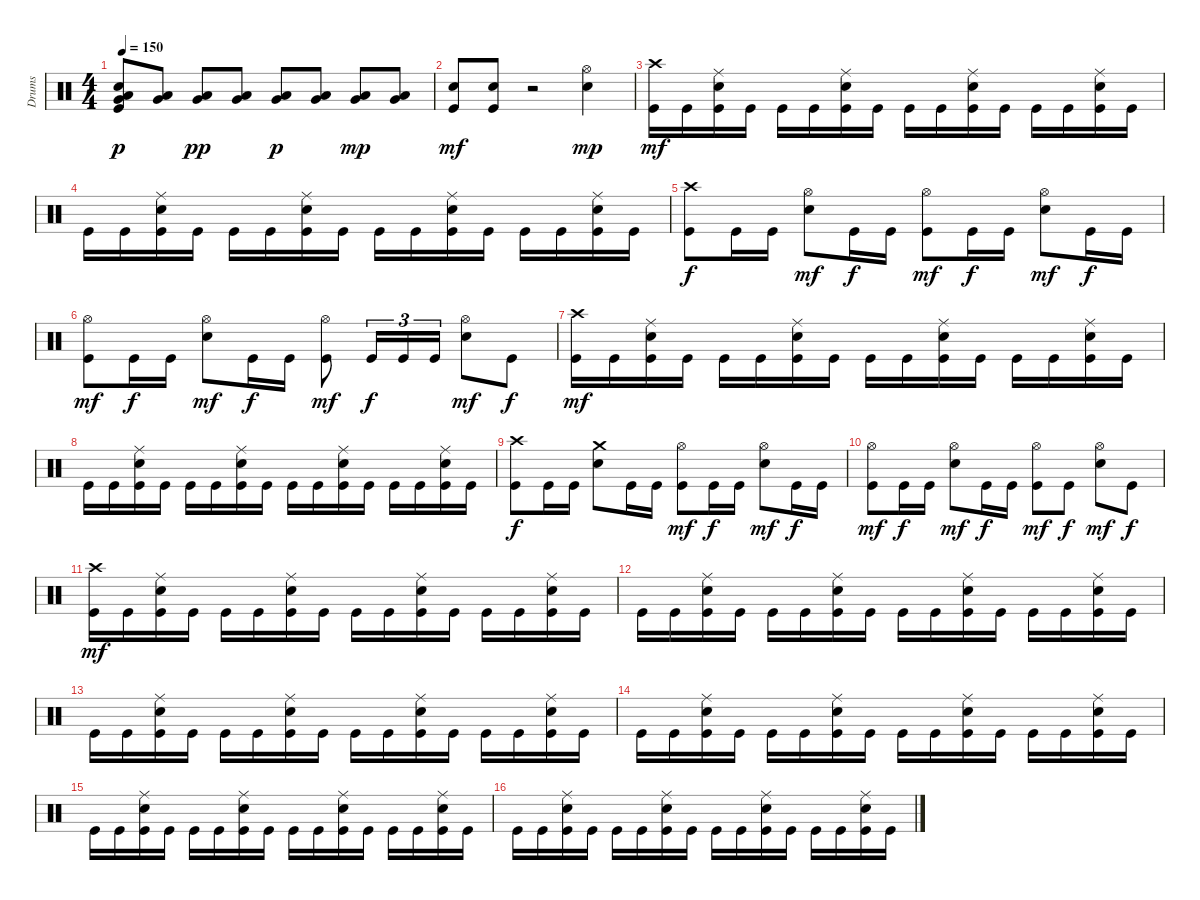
\track ("Drums" "Drums") {instrument percussion}
\staff {score}
\articulation defaults
\ts (4 4)
\tempo 150
\clef neutral
\ks c
("Kick (hit)" "Electric Snare (hit)" "Very Low Tom (hit)" "Low Tom (hit)").8{dy p} ("Very Low Tom (hit)" "Low Tom (hit)").8 ("Very Low Tom (hit)" "Low Tom (hit)").8{dy pp} ("Very Low Tom (hit)" "Low Tom (hit)").8 ("Very Low Tom (hit)" "Low Tom (hit)").8{dy p} ("Very Low Tom (hit)" "Low Tom (hit)").8 ("Very Low Tom (hit)" "Low Tom (hit)").8{dy mp} ("Very Low Tom (hit)" "Low Tom (hit)").8 |
("Kick (hit)" "Electric Snare (hit)").8{dy mf} ("Kick (hit)" "Electric Snare (hit)").8 r.2 ("Electric Snare (hit)" "Hi-Hat (open)").4{dy mp} |
("Kick (hit)" "Crash high (hit)").16{dy mf} "Kick (hit)".16 ("Kick (hit)" "Electric Snare (hit)" "Ride (middle)").16 "Kick (hit)".16 "Kick (hit)".16 "Kick (hit)".16 ("Kick (hit)" "Electric Snare (hit)" "Ride (middle)").16 "Kick (hit)".16 "Kick (hit)".16 "Kick (hit)".16 ("Kick (hit)" "Electric Snare (hit)" "Ride (middle)").16 "Kick (hit)".16 "Kick (hit)".16 "Kick (hit)".16 ("Kick (hit)" "Electric Snare (hit)" "Ride (middle)").16 "Kick (hit)".16 |
"Kick (hit)".16 "Kick (hit)".16 ("Kick (hit)" "Electric Snare (hit)" "Ride (middle)").16 "Kick (hit)".16 "Kick (hit)".16 "Kick (hit)".16 ("Kick (hit)" "Electric Snare (hit)" "Ride (middle)").16 "Kick (hit)".16 "Kick (hit)".16 "Kick (hit)".16 ("Kick (hit)" "Electric Snare (hit)" "Ride (middle)").16 "Kick (hit)".16 "Kick (hit)".16 "Kick (hit)".16 ("Kick (hit)" "Electric Snare (hit)" "Ride (middle)").16 "Kick (hit)".16 |
("Kick (hit)" "Crash high (hit)").8{dy f} "Kick (hit)".16 "Kick (hit)".16 ("Electric Snare (hit)" "Hi-Hat (open)").8{dy mf} "Kick (hit)".16{dy f} "Kick (hit)".16 ("Kick (hit)" "Hi-Hat (open)").8{dy mf} "Kick (hit)".16{dy f} "Kick (hit)".16 ("Electric Snare (hit)" "Hi-Hat (open)").8{dy mf} "Kick (hit)".16{dy f} "Kick (hit)".16 |
("Kick (hit)" "Hi-Hat (open)").8{dy mf} "Kick (hit)".16{dy f} "Kick (hit)".16 ("Electric Snare (hit)" "Hi-Hat (open)").8{dy mf} "Kick (hit)".16{dy f} "Kick (hit)".16 ("Kick (hit)" "Hi-Hat (open)").8{dy mf} "Kick (hit)".16{tu (3 2) dy f} "Kick (hit)".16{tu (3 2)} "Kick (hit)".16{tu (3 2)} ("Electric Snare (hit)" "Hi-Hat (open)").8{dy mf} "Kick (hit)".8{dy f} |
("Kick (hit)" "Crash high (hit)").16{dy mf} "Kick (hit)".16 ("Kick (hit)" "Electric Snare (hit)" "Ride (middle)").16 "Kick (hit)".16 "Kick (hit)".16 "Kick (hit)".16 ("Kick (hit)" "Electric Snare (hit)" "Ride (middle)").16 "Kick (hit)".16 "Kick (hit)".16 "Kick (hit)".16 ("Kick (hit)" "Electric Snare (hit)" "Ride (middle)").16 "Kick (hit)".16 "Kick (hit)".16 "Kick (hit)".16 ("Kick (hit)" "Electric Snare (hit)" "Ride (middle)").16 "Kick (hit)".16 |
"Kick (hit)".16 "Kick (hit)".16 ("Kick (hit)" "Electric Snare (hit)" "Ride (middle)").16 "Kick (hit)".16 "Kick (hit)".16 "Kick (hit)".16 ("Kick (hit)" "Electric Snare (hit)" "Ride (middle)").16 "Kick (hit)".16 "Kick (hit)".16 "Kick (hit)".16 ("Kick (hit)" "Electric Snare (hit)" "Ride (middle)").16 "Kick (hit)".16 "Kick (hit)".16 "Kick (hit)".16 ("Kick (hit)" "Electric Snare (hit)" "Ride (middle)").16 "Kick (hit)".16 |
("Kick (hit)" "Crash high (hit)").8{dy f} "Kick (hit)".16 "Kick (hit)".16 ("Electric Snare (hit)" "Crash medium (hit)").8 "Kick (hit)".16 "Kick (hit)".16 ("Kick (hit)" "Hi-Hat (open)").8{dy mf} "Kick (hit)".16{dy f} "Kick (hit)".16 ("Electric Snare (hit)" "Hi-Hat (open)").8{dy mf} "Kick (hit)".16{dy f} "Kick (hit)".16 |
("Kick (hit)" "Hi-Hat (open)").8{dy mf} "Kick (hit)".16{dy f} "Kick (hit)".16 ("Electric Snare (hit)" "Hi-Hat (open)").8{dy mf} "Kick (hit)".16{dy f} "Kick (hit)".16 ("Kick (hit)" "Hi-Hat (open)").8{dy mf} "Kick (hit)".8{dy f} ("Electric Snare (hit)" "Hi-Hat (open)").8{dy mf} "Kick (hit)".8{dy f} |
("Kick (hit)" "Crash high (hit)").16{dy mf} "Kick (hit)".16 ("Kick (hit)" "Electric Snare (hit)" "Ride (middle)").16 "Kick (hit)".16 "Kick (hit)".16 "Kick (hit)".16 ("Kick (hit)" "Electric Snare (hit)" "Ride (middle)").16 "Kick (hit)".16 "Kick (hit)".16 "Kick (hit)".16 ("Kick (hit)" "Electric Snare (hit)" "Ride (middle)").16 "Kick (hit)".16 "Kick (hit)".16 "Kick (hit)".16 ("Kick (hit)" "Electric Snare (hit)" "Ride (middle)").16 "Kick (hit)".16 |
"Kick (hit)".16 "Kick (hit)".16 ("Kick (hit)" "Electric Snare (hit)" "Ride (middle)").16 "Kick (hit)".16 "Kick (hit)".16 "Kick (hit)".16 ("Kick (hit)" "Electric Snare (hit)" "Ride (middle)").16 "Kick (hit)".16 "Kick (hit)".16 "Kick (hit)".16 ("Kick (hit)" "Electric Snare (hit)" "Ride (middle)").16 "Kick (hit)".16 "Kick (hit)".16 "Kick (hit)".16 ("Kick (hit)" "Electric Snare (hit)" "Ride (middle)").16 "Kick (hit)".16 |
"Kick (hit)".16 "Kick (hit)".16 ("Kick (hit)" "Electric Snare (hit)" "Ride (middle)").16 "Kick (hit)".16 "Kick (hit)".16 "Kick (hit)".16 ("Kick (hit)" "Electric Snare (hit)" "Ride (middle)").16 "Kick (hit)".16 "Kick (hit)".16 "Kick (hit)".16 ("Kick (hit)" "Electric Snare (hit)" "Ride (middle)").16 "Kick (hit)".16 "Kick (hit)".16 "Kick (hit)".16 ("Kick (hit)" "Electric Snare (hit)" "Ride (middle)").16 "Kick (hit)".16 |
"Kick (hit)".16 "Kick (hit)".16 ("Kick (hit)" "Electric Snare (hit)" "Ride (middle)").16 "Kick (hit)".16 "Kick (hit)".16 "Kick (hit)".16 ("Kick (hit)" "Electric Snare (hit)" "Ride (middle)").16 "Kick (hit)".16 "Kick (hit)".16 "Kick (hit)".16 ("Kick (hit)" "Electric Snare (hit)" "Ride (middle)").16 "Kick (hit)".16 "Kick (hit)".16 "Kick (hit)".16 ("Kick (hit)" "Electric Snare (hit)" "Ride (middle)").16 "Kick (hit)".16 |
"Kick (hit)".16 "Kick (hit)".16 ("Kick (hit)" "Electric Snare (hit)" "Ride (middle)").16 "Kick (hit)".16 "Kick (hit)".16 "Kick (hit)".16 ("Kick (hit)" "Electric Snare (hit)" "Ride (middle)").16 "Kick (hit)".16 "Kick (hit)".16 "Kick (hit)".16 ("Kick (hit)" "Electric Snare (hit)" "Ride (middle)").16 "Kick (hit)".16 "Kick (hit)".16 "Kick (hit)".16 ("Kick (hit)" "Electric Snare (hit)" "Ride (middle)").16 "Kick (hit)".16 |
"Kick (hit)".16 "Kick (hit)".16 ("Kick (hit)" "Electric Snare (hit)" "Ride (middle)").16 "Kick (hit)".16 "Kick (hit)".16 "Kick (hit)".16 ("Kick (hit)" "Electric Snare (hit)" "Ride (middle)").16 "Kick (hit)".16 "Kick (hit)".16 "Kick (hit)".16 ("Kick (hit)" "Electric Snare (hit)" "Ride (middle)").16 "Kick (hit)".16 "Kick (hit)".16 "Kick (hit)".16 ("Kick (hit)" "Electric Snare (hit)" "Ride (middle)").16 "Kick (hit)".16
